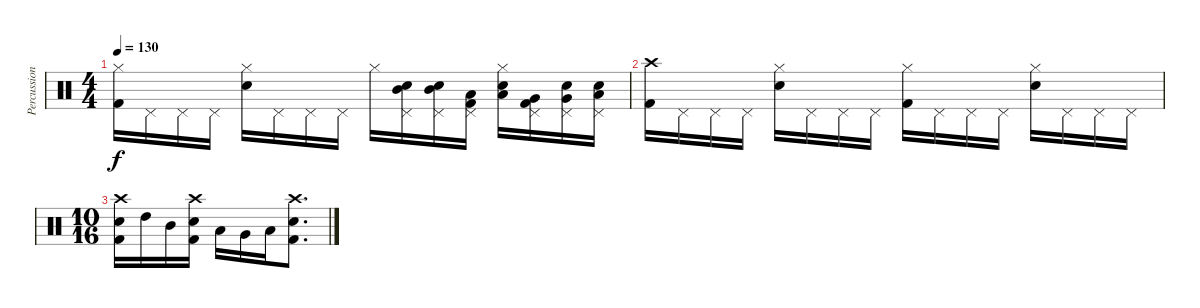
\track ("Percussion" "Percussion") {instrument percussion}
\staff {score}
\articulation defaults
\ts (4 4)
\tempo 130
\clef neutral
\ks c
("Hi-Hat (closed)" "Kick (hit) 2").16{dy f} "Pedal Hi-Hat (hit)".16 "Pedal Hi-Hat (hit)".16 "Pedal Hi-Hat (hit)".16 ("Hi-Hat (closed)" "Snare (hit) 2").16 "Pedal Hi-Hat (hit)".16 "Pedal Hi-Hat (hit)".16 "Pedal Hi-Hat (hit)".16 "Hi-Hat (closed)".16 ("Pedal Hi-Hat (hit)" "Mid Tom (hit)" "Snare (hit) 2").16 ("Pedal Hi-Hat (hit)" "Mid Tom (hit)" "Snare (hit) 2").16 ("Pedal Hi-Hat (hit)" "Low Tom (hit)" "Kick (hit) 2").16 ("Hi-Hat (closed)" "Low Tom (hit)" "Snare (hit) 2").16 ("Pedal Hi-Hat (hit)" "Very Low Tom (hit)" "Kick (hit) 2").16 ("Pedal Hi-Hat (hit)" "Very Low Tom (hit)" "Snare (hit) 2").16 ("Pedal Hi-Hat (hit)" "Low Floor Tom (hit)" "Snare (hit) 2").16 |
("Crash high (hit)" "Kick (hit) 2").16 "Pedal Hi-Hat (hit)".16 "Pedal Hi-Hat (hit)".16 "Pedal Hi-Hat (hit)".16 ("Hi-Hat (closed)" "Snare (hit) 2").16 "Pedal Hi-Hat (hit)".16 "Pedal Hi-Hat (hit)".16 "Pedal Hi-Hat (hit)".16 ("Hi-Hat (closed)" "Kick (hit) 2").16 "Pedal Hi-Hat (hit)".16 "Pedal Hi-Hat (hit)".16 "Pedal Hi-Hat (hit)".16 ("Hi-Hat (closed)" "Snare (hit) 2").16 "Pedal Hi-Hat (hit)".16 "Pedal Hi-Hat (hit)".16 "Pedal Hi-Hat (hit)".16 |
\ts (10 16)
("Crash high (hit)" "Snare (hit) 2" "Kick (hit) 2").16 "High Tom (hit)".16 "Mid Tom (hit)".16 ("Crash high (hit)" "Snare (hit) 2" "Kick (hit) 2").16 "Low Tom (hit)".16 "Very Low Tom (hit)".16 "Low Floor Tom (hit)".16 ("Crash high (hit)" "Snare (hit) 2" "Kick (hit) 2").8{d}
